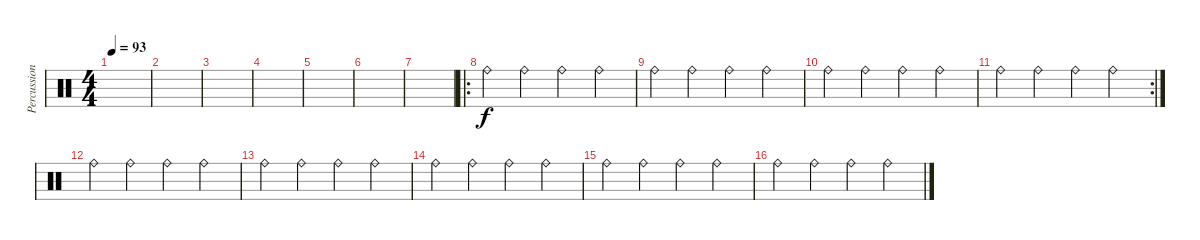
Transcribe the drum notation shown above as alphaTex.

\track ("Percussion" "Percussion") {instrument percussion}
\staff {score}
\articulation defaults
\ts (4 4)
\tempo 93
\clef neutral
\ks c
|
|
|
|
|
|
|
\ro "Ride (bell)".4 "Ride (bell)".4 "Ride (bell)".4 "Ride (bell)".4
|
"Ride (bell)".4 "Ride (bell)".4 "Ride (bell)".4 "Ride (bell)".4 |
"Ride (bell)".4 "Ride (bell)".4 "Ride (bell)".4 "Ride (bell)".4 |
\rc 2 "Ride (bell)".4 "Ride (bell)".4 "Ride (bell)".4 "Ride (bell)".4
|
"Ride (bell)".4 "Ride (bell)".4 "Ride (bell)".4 "Ride (bell)".4 |
"Ride (bell)".4 "Ride (bell)".4 "Ride (bell)".4 "Ride (bell)".4 |
"Ride (bell)".4 "Ride (bell)".4 "Ride (bell)".4 "Ride (bell)".4 |
"Ride (bell)".4 "Ride (bell)".4 "Ride (bell)".4 "Ride (bell)".4 |
"Ride (bell)".4 "Ride (bell)".4 "Ride (bell)".4 "Ride (bell)".4
